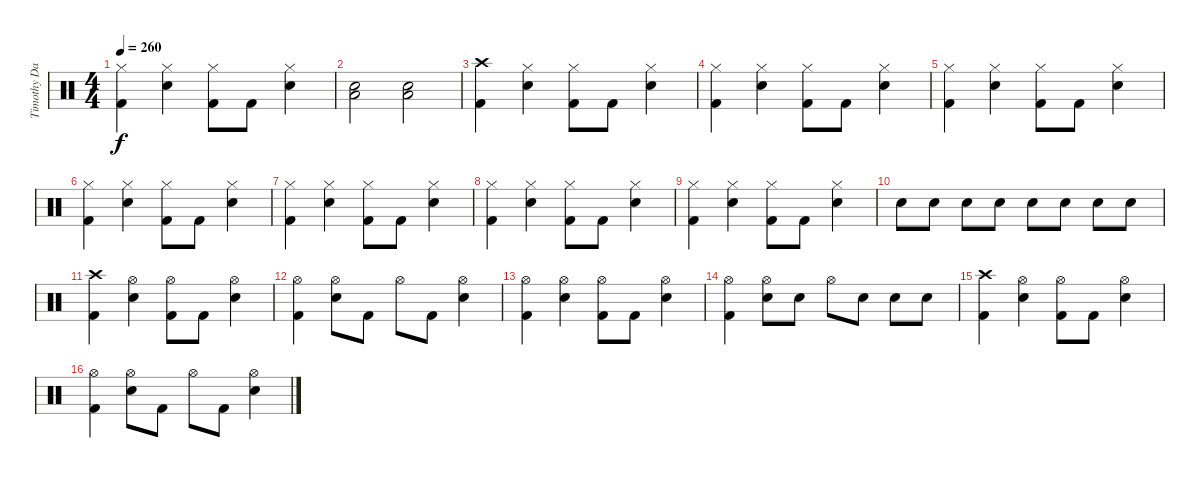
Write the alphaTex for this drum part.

\track ("Timothy David Bollinger" "Timothy Da") {instrument percussion}
\staff {score}
\articulation defaults
\ts (4 4)
\tempo 260
\clef neutral
\ks c
("Hi-Hat (closed)" "Kick (hit) 2").4{dy f} ("Hi-Hat (closed)" "Electric Snare (hit)").4 ("Hi-Hat (closed)" "Kick (hit) 2").8 "Kick (hit) 2".8 ("Hi-Hat (closed)" "Electric Snare (hit)").4 |
("Electric Snare (hit)" "Low Tom (hit)").2 ("Electric Snare (hit)" "Low Tom (hit)").2 |
("Crash high (hit)" "Kick (hit) 2").4 ("Hi-Hat (closed)" "Electric Snare (hit)").4 ("Hi-Hat (closed)" "Kick (hit) 2").8 "Kick (hit) 2".8 ("Hi-Hat (closed)" "Electric Snare (hit)").4 |
("Hi-Hat (closed)" "Kick (hit) 2").4 ("Hi-Hat (closed)" "Electric Snare (hit)").4 ("Hi-Hat (closed)" "Kick (hit) 2").8 "Kick (hit) 2".8 ("Hi-Hat (closed)" "Electric Snare (hit)").4 |
("Hi-Hat (closed)" "Kick (hit) 2").4 ("Hi-Hat (closed)" "Electric Snare (hit)").4 ("Hi-Hat (closed)" "Kick (hit) 2").8 "Kick (hit) 2".8 ("Hi-Hat (closed)" "Electric Snare (hit)").4 |
("Hi-Hat (closed)" "Kick (hit) 2").4 ("Hi-Hat (closed)" "Electric Snare (hit)").4 ("Hi-Hat (closed)" "Kick (hit) 2").8 "Kick (hit) 2".8 ("Hi-Hat (closed)" "Electric Snare (hit)").4 |
("Hi-Hat (closed)" "Kick (hit) 2").4 ("Hi-Hat (closed)" "Electric Snare (hit)").4 ("Hi-Hat (closed)" "Kick (hit) 2").8 "Kick (hit) 2".8 ("Hi-Hat (closed)" "Electric Snare (hit)").4 |
("Hi-Hat (closed)" "Kick (hit) 2").4 ("Hi-Hat (closed)" "Electric Snare (hit)").4 ("Hi-Hat (closed)" "Kick (hit) 2").8 "Kick (hit) 2".8 ("Hi-Hat (closed)" "Electric Snare (hit)").4 |
("Hi-Hat (closed)" "Kick (hit) 2").4 ("Hi-Hat (closed)" "Electric Snare (hit)").4 ("Hi-Hat (closed)" "Kick (hit) 2").8 "Kick (hit) 2".8 ("Hi-Hat (closed)" "Electric Snare (hit)").4 |
"Electric Snare (hit)".8 "Electric Snare (hit)".8 "Electric Snare (hit)".8 "Electric Snare (hit)".8 "Electric Snare (hit)".8 "Electric Snare (hit)".8 "Electric Snare (hit)".8 "Electric Snare (hit)".8 |
("Crash high (hit)" "Kick (hit) 2").4 ("Hi-Hat (open)" "Electric Snare (hit)").4 ("Hi-Hat (open)" "Kick (hit) 2").8 "Kick (hit) 2".8 ("Hi-Hat (open)" "Electric Snare (hit)").4 |
("Hi-Hat (open)" "Kick (hit) 2").4 ("Hi-Hat (open)" "Electric Snare (hit)").8 "Kick (hit) 2".8 "Hi-Hat (open)".8 "Kick (hit) 2".8 ("Hi-Hat (open)" "Electric Snare (hit)").4 |
("Hi-Hat (open)" "Kick (hit) 2").4 ("Hi-Hat (open)" "Electric Snare (hit)").4 ("Hi-Hat (open)" "Kick (hit) 2").8 "Kick (hit) 2".8 ("Hi-Hat (open)" "Electric Snare (hit)").4 |
("Hi-Hat (open)" "Kick (hit) 2").4 ("Hi-Hat (open)" "Electric Snare (hit)").8 "Electric Snare (hit)".8 "Hi-Hat (open)".8 "Electric Snare (hit)".8 "Electric Snare (hit)".8 "Electric Snare (hit)".8 |
("Crash high (hit)" "Kick (hit) 2").4 ("Hi-Hat (open)" "Electric Snare (hit)").4 ("Hi-Hat (open)" "Kick (hit) 2").8 "Kick (hit) 2".8 ("Hi-Hat (open)" "Electric Snare (hit)").4 |
("Hi-Hat (open)" "Kick (hit) 2").4 ("Hi-Hat (open)" "Electric Snare (hit)").8 "Kick (hit) 2".8 "Hi-Hat (open)".8 "Kick (hit) 2".8 ("Hi-Hat (open)" "Electric Snare (hit)").4
